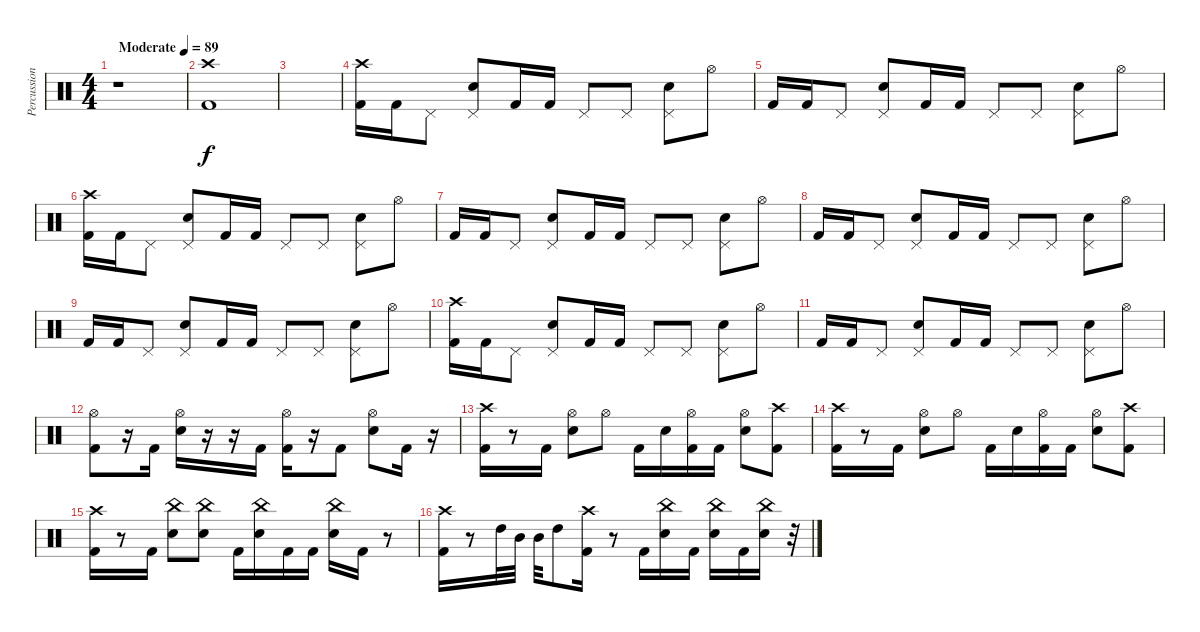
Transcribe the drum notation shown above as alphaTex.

\track ("Percussion" "Percussion") {instrument percussion}
\staff {score}
\articulation defaults
\ts (4 4)
\tempo (89 "Moderate")
\clef neutral
\ks c
r.1{dy f} |
("Crash high (hit)" "Kick (hit) 2").1 |
|
("Crash high (hit)" "Kick (hit) 2").16 "Kick (hit) 2".16 "Pedal Hi-Hat (hit)".8 ("Pedal Hi-Hat (hit)" "Electric Snare (hit)").8 "Kick (hit) 2".16 "Kick (hit) 2".16 "Pedal Hi-Hat (hit)".8 "Pedal Hi-Hat (hit)".8 ("Pedal Hi-Hat (hit)" "Electric Snare (hit)").8 "Hi-Hat (open)".8 |
"Kick (hit) 2".16 "Kick (hit) 2".16 "Pedal Hi-Hat (hit)".8 ("Pedal Hi-Hat (hit)" "Electric Snare (hit)").8 "Kick (hit) 2".16 "Kick (hit) 2".16 "Pedal Hi-Hat (hit)".8 "Pedal Hi-Hat (hit)".8 ("Pedal Hi-Hat (hit)" "Electric Snare (hit)").8 "Hi-Hat (open)".8 |
("Crash high (hit)" "Kick (hit) 2").16 "Kick (hit) 2".16 "Pedal Hi-Hat (hit)".8 ("Pedal Hi-Hat (hit)" "Electric Snare (hit)").8 "Kick (hit) 2".16 "Kick (hit) 2".16 "Pedal Hi-Hat (hit)".8 "Pedal Hi-Hat (hit)".8 ("Pedal Hi-Hat (hit)" "Electric Snare (hit)").8 "Hi-Hat (open)".8 |
"Kick (hit) 2".16 "Kick (hit) 2".16 "Pedal Hi-Hat (hit)".8 ("Pedal Hi-Hat (hit)" "Electric Snare (hit)").8 "Kick (hit) 2".16 "Kick (hit) 2".16 "Pedal Hi-Hat (hit)".8 "Pedal Hi-Hat (hit)".8 ("Pedal Hi-Hat (hit)" "Electric Snare (hit)").8 "Hi-Hat (open)".8 |
"Kick (hit) 2".16 "Kick (hit) 2".16 "Pedal Hi-Hat (hit)".8 ("Pedal Hi-Hat (hit)" "Electric Snare (hit)").8 "Kick (hit) 2".16 "Kick (hit) 2".16 "Pedal Hi-Hat (hit)".8 "Pedal Hi-Hat (hit)".8 ("Pedal Hi-Hat (hit)" "Electric Snare (hit)").8 "Hi-Hat (open)".8 |
"Kick (hit) 2".16 "Kick (hit) 2".16 "Pedal Hi-Hat (hit)".8 ("Pedal Hi-Hat (hit)" "Electric Snare (hit)").8 "Kick (hit) 2".16 "Kick (hit) 2".16 "Pedal Hi-Hat (hit)".8 "Pedal Hi-Hat (hit)".8 ("Pedal Hi-Hat (hit)" "Electric Snare (hit)").8 "Hi-Hat (open)".8 |
("Crash high (hit)" "Kick (hit) 2").16 "Kick (hit) 2".16 "Pedal Hi-Hat (hit)".8 ("Pedal Hi-Hat (hit)" "Electric Snare (hit)").8 "Kick (hit) 2".16 "Kick (hit) 2".16 "Pedal Hi-Hat (hit)".8 "Pedal Hi-Hat (hit)".8 ("Pedal Hi-Hat (hit)" "Electric Snare (hit)").8 "Hi-Hat (open)".8 |
"Kick (hit) 2".16 "Kick (hit) 2".16 "Pedal Hi-Hat (hit)".8 ("Pedal Hi-Hat (hit)" "Electric Snare (hit)").8 "Kick (hit) 2".16 "Kick (hit) 2".16 "Pedal Hi-Hat (hit)".8 "Pedal Hi-Hat (hit)".8 ("Pedal Hi-Hat (hit)" "Electric Snare (hit)").8 "Hi-Hat (open)".8 |
("Hi-Hat (open)" "Kick (hit) 2").8 r.16 "Kick (hit) 2".16 ("Hi-Hat (open)" "Electric Snare (hit)").16 r.16 r.16 "Kick (hit) 2".16 ("Hi-Hat (open)" "Kick (hit) 2").16 r.16 "Kick (hit) 2".8 ("Hi-Hat (open)" "Electric Snare (hit)").8 "Kick (hit) 2".16 r.16 |
("Crash high (hit)" "Kick (hit) 2").16 r.8 "Kick (hit) 2".16 ("Hi-Hat (open)" "Electric Snare (hit)").8 "Hi-Hat (open)".8 "Kick (hit) 2".16 "Electric Snare (hit)".16 ("Hi-Hat (open)" "Kick (hit) 2").16 "Kick (hit) 2".16 ("Hi-Hat (open)" "Electric Snare (hit)").8 ("Crash high (hit)" "Kick (hit) 2").8 |
("Crash high (hit)" "Kick (hit) 2").16 r.8 "Kick (hit) 2".16 ("Hi-Hat (open)" "Electric Snare (hit)").8 "Hi-Hat (open)".8 "Kick (hit) 2".16 "Electric Snare (hit)".16 ("Hi-Hat (open)" "Kick (hit) 2").16 "Kick (hit) 2".16 ("Hi-Hat (open)" "Electric Snare (hit)").8 ("Crash high (hit)" "Kick (hit) 2").8 |
("Crash high (hit)" "Kick (hit) 2").16 r.8 "Kick (hit) 2".16 ("China (hit)" "Electric Snare (hit)").8 ("China (hit)" "Electric Snare (hit)").8 "Kick (hit) 2".16 ("China (hit)" "Electric Snare (hit)").16 "Kick (hit) 2".16 "Kick (hit) 2".16 ("China (hit)" "Electric Snare (hit)").16 "Kick (hit) 2".16 r.8 |
("Crash high (hit)" "Kick (hit) 2").16 r.8 "High Tom (hit)".32 "Mid Tom (hit)".32 "Mid Tom (hit)".32 "High Tom (hit)".8 ("Crash high (hit)" "Kick (hit) 2").16 r.8 "Kick (hit) 2".16 ("China (hit)" "Electric Snare (hit)").16 "Kick (hit) 2".16 ("China (hit)" "Electric Snare (hit)").16 "Kick (hit) 2".16 ("China (hit)" "Electric Snare (hit)").16 r.32
